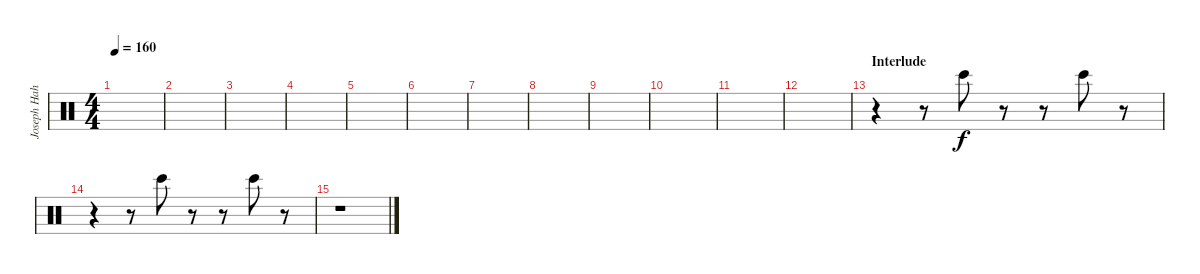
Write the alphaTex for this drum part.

\track ("Joseph Hahn (Sampler 3)" "Joseph Hah") {instrument percussion}
\staff {score}
\articulation defaults
\ts (4 4)
\tempo 160
\clef neutral
\ks c
|
|
|
|
|
|
|
|
|
|
|
|
\section ("" "Interlude")
r.4 r.8 "Bongo High (hit)".8 r.8 r.8 "Bongo High (hit)".8 r.8 |
r.4 r.8 "Bongo High (hit)".8 r.8 r.8 "Bongo High (hit)".8 r.8 |
r.1
